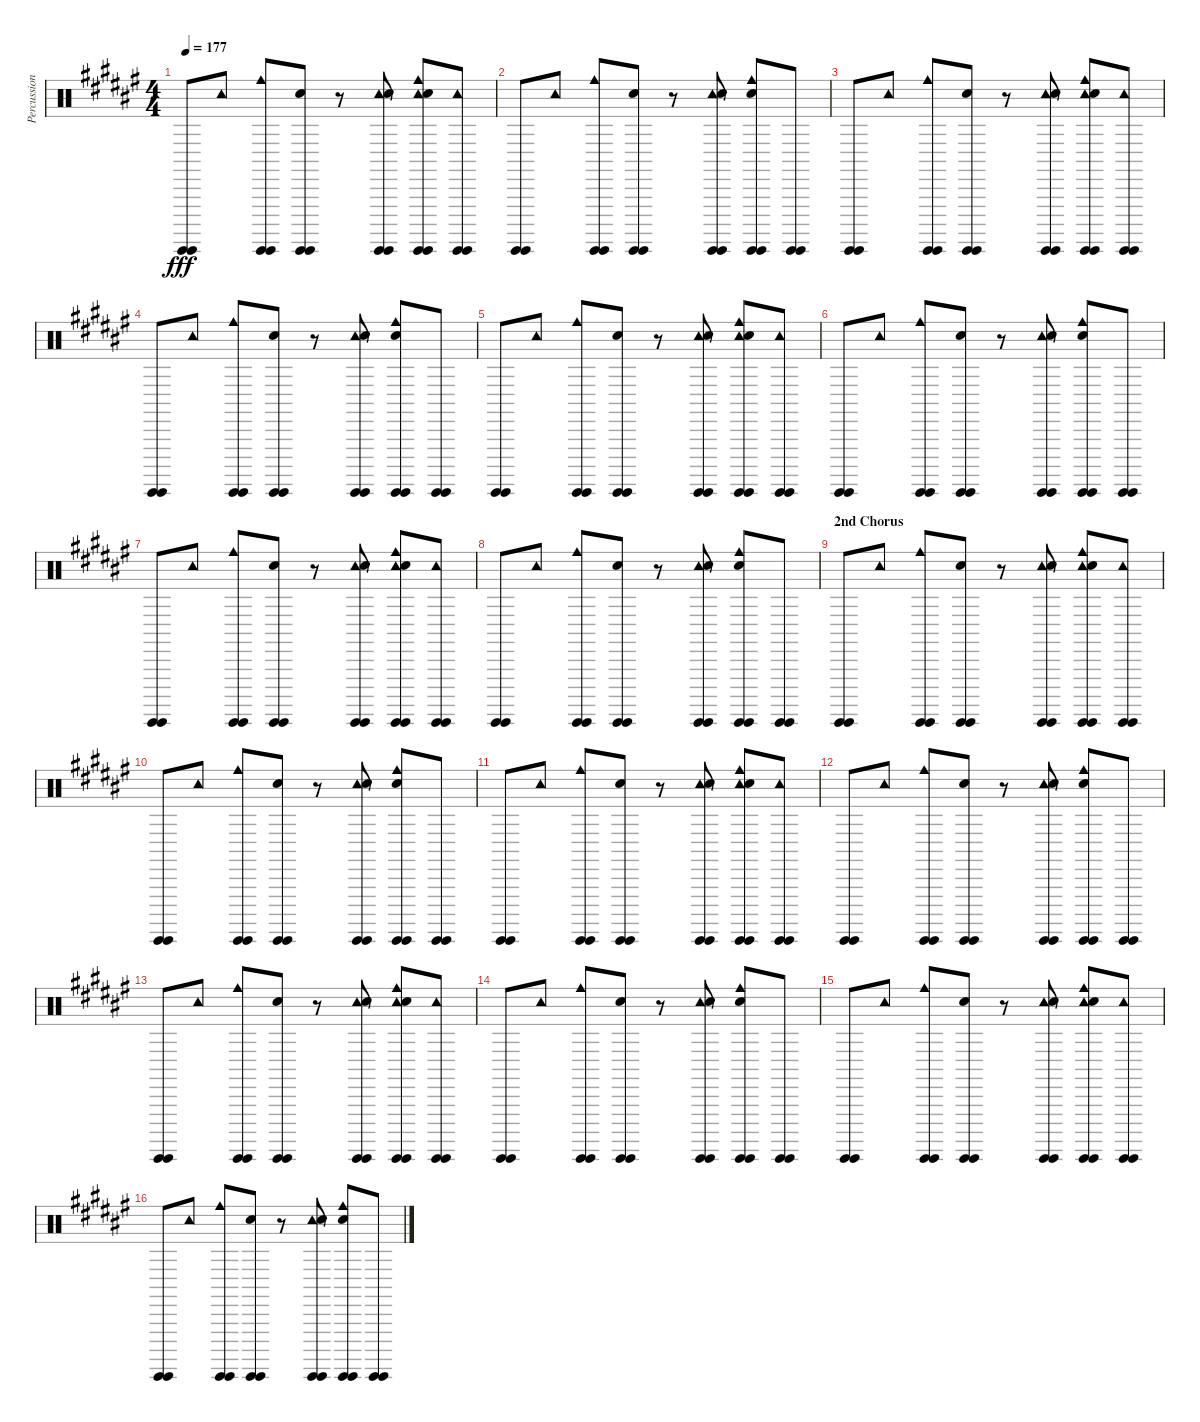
\track ("Percussion" "Percussion") {instrument percussion}
\staff {score}
\articulation defaults
\ts (4 4)
\tempo 177
\clef neutral
\ks d#minor
("Guiro (hit)" "Guiro (hit)").8{dy fff} "Tambourine (hit)".8 ("Cowbell medium (hit)" "Guiro (hit)" "Guiro (hit)").8 ("Guiro (hit)" "Guiro (hit)" "Hand Clap (hit)").8 r.8 ("Tambourine (hit)" "Guiro (hit)" "Guiro (hit)" "Hand Clap (hit)").8 ("Cowbell medium (hit)" "Tambourine (hit)" "Guiro (hit)" "Guiro (hit)" "Hand Clap (hit)").8 ("Tambourine (hit)" "Guiro (hit)" "Guiro (hit)").8 |
("Guiro (hit)" "Guiro (hit)").8 "Tambourine (hit)".8 ("Cowbell medium (hit)" "Guiro (hit)" "Guiro (hit)").8 ("Guiro (hit)" "Guiro (hit)" "Hand Clap (hit)").8 r.8 ("Tambourine (hit)" "Guiro (hit)" "Guiro (hit)" "Hand Clap (hit)").8 ("Cowbell medium (hit)" "Guiro (hit)" "Guiro (hit)" "Hand Clap (hit)").8 ("Guiro (hit)" "Guiro (hit)").8 |
("Guiro (hit)" "Guiro (hit)").8 "Tambourine (hit)".8 ("Cowbell medium (hit)" "Guiro (hit)" "Guiro (hit)").8 ("Guiro (hit)" "Guiro (hit)" "Hand Clap (hit)").8 r.8 ("Tambourine (hit)" "Guiro (hit)" "Guiro (hit)" "Hand Clap (hit)").8 ("Cowbell medium (hit)" "Tambourine (hit)" "Guiro (hit)" "Guiro (hit)" "Hand Clap (hit)").8 ("Tambourine (hit)" "Guiro (hit)" "Guiro (hit)").8 |
("Guiro (hit)" "Guiro (hit)").8 "Tambourine (hit)".8 ("Cowbell medium (hit)" "Guiro (hit)" "Guiro (hit)").8 ("Guiro (hit)" "Guiro (hit)" "Hand Clap (hit)").8 r.8 ("Tambourine (hit)" "Guiro (hit)" "Guiro (hit)" "Hand Clap (hit)").8 ("Cowbell medium (hit)" "Guiro (hit)" "Guiro (hit)" "Hand Clap (hit)").8 ("Guiro (hit)" "Guiro (hit)").8 |
("Guiro (hit)" "Guiro (hit)").8 "Tambourine (hit)".8 ("Cowbell medium (hit)" "Guiro (hit)" "Guiro (hit)").8 ("Guiro (hit)" "Guiro (hit)" "Hand Clap (hit)").8 r.8 ("Tambourine (hit)" "Guiro (hit)" "Guiro (hit)" "Hand Clap (hit)").8 ("Cowbell medium (hit)" "Tambourine (hit)" "Guiro (hit)" "Guiro (hit)" "Hand Clap (hit)").8 ("Tambourine (hit)" "Guiro (hit)" "Guiro (hit)").8 |
("Guiro (hit)" "Guiro (hit)").8 "Tambourine (hit)".8 ("Cowbell medium (hit)" "Guiro (hit)" "Guiro (hit)").8 ("Guiro (hit)" "Guiro (hit)" "Hand Clap (hit)").8 r.8 ("Tambourine (hit)" "Guiro (hit)" "Guiro (hit)" "Hand Clap (hit)").8 ("Cowbell medium (hit)" "Guiro (hit)" "Guiro (hit)" "Hand Clap (hit)").8 ("Guiro (hit)" "Guiro (hit)").8 |
("Guiro (hit)" "Guiro (hit)").8 "Tambourine (hit)".8 ("Cowbell medium (hit)" "Guiro (hit)" "Guiro (hit)").8 ("Guiro (hit)" "Guiro (hit)" "Hand Clap (hit)").8 r.8 ("Tambourine (hit)" "Guiro (hit)" "Guiro (hit)" "Hand Clap (hit)").8 ("Cowbell medium (hit)" "Tambourine (hit)" "Guiro (hit)" "Guiro (hit)" "Hand Clap (hit)").8 ("Tambourine (hit)" "Guiro (hit)" "Guiro (hit)").8 |
("Guiro (hit)" "Guiro (hit)").8 "Tambourine (hit)".8 ("Cowbell medium (hit)" "Guiro (hit)" "Guiro (hit)").8 ("Guiro (hit)" "Guiro (hit)" "Hand Clap (hit)").8 r.8 ("Tambourine (hit)" "Guiro (hit)" "Guiro (hit)" "Hand Clap (hit)").8 ("Cowbell medium (hit)" "Guiro (hit)" "Guiro (hit)" "Hand Clap (hit)").8 ("Guiro (hit)" "Guiro (hit)").8 |
\section ("" "2nd Chorus")
("Guiro (hit)" "Guiro (hit)").8 "Tambourine (hit)".8 ("Cowbell medium (hit)" "Guiro (hit)" "Guiro (hit)").8 ("Guiro (hit)" "Guiro (hit)" "Hand Clap (hit)").8 r.8 ("Tambourine (hit)" "Guiro (hit)" "Guiro (hit)" "Hand Clap (hit)").8 ("Cowbell medium (hit)" "Tambourine (hit)" "Guiro (hit)" "Guiro (hit)" "Hand Clap (hit)").8 ("Tambourine (hit)" "Guiro (hit)" "Guiro (hit)").8 |
("Guiro (hit)" "Guiro (hit)").8 "Tambourine (hit)".8 ("Cowbell medium (hit)" "Guiro (hit)" "Guiro (hit)").8 ("Guiro (hit)" "Guiro (hit)" "Hand Clap (hit)").8 r.8 ("Tambourine (hit)" "Guiro (hit)" "Guiro (hit)" "Hand Clap (hit)").8 ("Cowbell medium (hit)" "Guiro (hit)" "Guiro (hit)" "Hand Clap (hit)").8 ("Guiro (hit)" "Guiro (hit)").8 |
("Guiro (hit)" "Guiro (hit)").8 "Tambourine (hit)".8 ("Cowbell medium (hit)" "Guiro (hit)" "Guiro (hit)").8 ("Guiro (hit)" "Guiro (hit)" "Hand Clap (hit)").8 r.8 ("Tambourine (hit)" "Guiro (hit)" "Guiro (hit)" "Hand Clap (hit)").8 ("Cowbell medium (hit)" "Tambourine (hit)" "Guiro (hit)" "Guiro (hit)" "Hand Clap (hit)").8 ("Tambourine (hit)" "Guiro (hit)" "Guiro (hit)").8 |
("Guiro (hit)" "Guiro (hit)").8 "Tambourine (hit)".8 ("Cowbell medium (hit)" "Guiro (hit)" "Guiro (hit)").8 ("Guiro (hit)" "Guiro (hit)" "Hand Clap (hit)").8 r.8 ("Tambourine (hit)" "Guiro (hit)" "Guiro (hit)" "Hand Clap (hit)").8 ("Cowbell medium (hit)" "Guiro (hit)" "Guiro (hit)" "Hand Clap (hit)").8 ("Guiro (hit)" "Guiro (hit)").8 |
("Guiro (hit)" "Guiro (hit)").8 "Tambourine (hit)".8 ("Cowbell medium (hit)" "Guiro (hit)" "Guiro (hit)").8 ("Guiro (hit)" "Guiro (hit)" "Hand Clap (hit)").8 r.8 ("Tambourine (hit)" "Guiro (hit)" "Guiro (hit)" "Hand Clap (hit)").8 ("Cowbell medium (hit)" "Tambourine (hit)" "Guiro (hit)" "Guiro (hit)" "Hand Clap (hit)").8 ("Tambourine (hit)" "Guiro (hit)" "Guiro (hit)").8 |
("Guiro (hit)" "Guiro (hit)").8 "Tambourine (hit)".8 ("Cowbell medium (hit)" "Guiro (hit)" "Guiro (hit)").8 ("Guiro (hit)" "Guiro (hit)" "Hand Clap (hit)").8 r.8 ("Tambourine (hit)" "Guiro (hit)" "Guiro (hit)" "Hand Clap (hit)").8 ("Cowbell medium (hit)" "Guiro (hit)" "Guiro (hit)" "Hand Clap (hit)").8 ("Guiro (hit)" "Guiro (hit)").8 |
("Guiro (hit)" "Guiro (hit)").8 "Tambourine (hit)".8 ("Cowbell medium (hit)" "Guiro (hit)" "Guiro (hit)").8 ("Guiro (hit)" "Guiro (hit)" "Hand Clap (hit)").8 r.8 ("Tambourine (hit)" "Guiro (hit)" "Guiro (hit)" "Hand Clap (hit)").8 ("Cowbell medium (hit)" "Tambourine (hit)" "Guiro (hit)" "Guiro (hit)" "Hand Clap (hit)").8 ("Tambourine (hit)" "Guiro (hit)" "Guiro (hit)").8 |
("Guiro (hit)" "Guiro (hit)").8 "Tambourine (hit)".8 ("Cowbell medium (hit)" "Guiro (hit)" "Guiro (hit)").8 ("Guiro (hit)" "Guiro (hit)" "Hand Clap (hit)").8 r.8 ("Tambourine (hit)" "Guiro (hit)" "Guiro (hit)" "Hand Clap (hit)").8 ("Cowbell medium (hit)" "Guiro (hit)" "Guiro (hit)" "Hand Clap (hit)").8 ("Guiro (hit)" "Guiro (hit)").8
